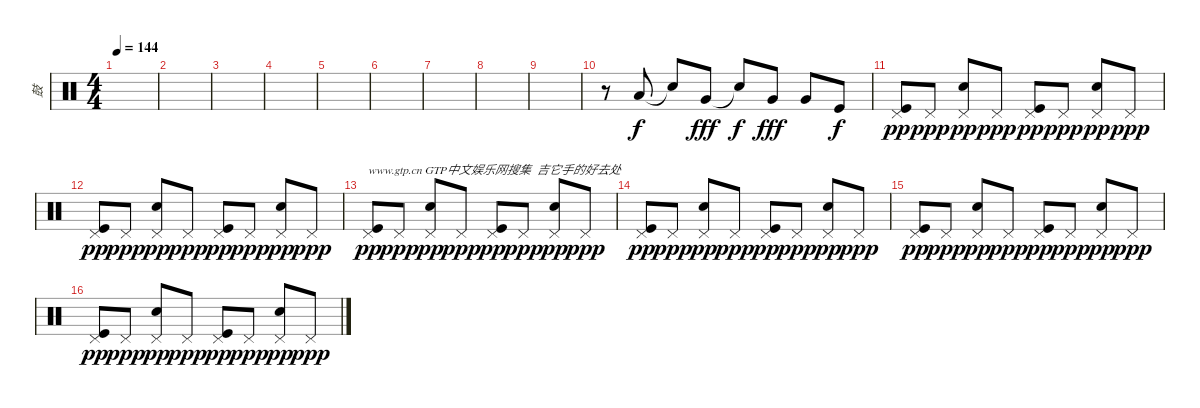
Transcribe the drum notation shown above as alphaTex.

\track ("鼓" "鼓") {instrument percussion}
\staff {score}
\articulation defaults
\ts (4 4)
\tempo 144
\clef neutral
\ks c
|
|
|
|
|
|
|
|
|
r.8 "Low Tom (hit)".8 "Snare (hit)"{t}.8{dy f} "Very Low Tom (hit)".8{dy fff} "Snare (hit)"{t}.8{dy f} "Very Low Tom (hit)".8{dy fff} "Very Low Tom (hit)".8 "Kick (hit)".8{dy f} |
("Kick (hit)" "Pedal Hi-Hat (hit)").8{dy pp} "Pedal Hi-Hat (hit)".8{dy ppp} ("Snare (hit) 2" "Pedal Hi-Hat (hit)").8{dy pp} "Pedal Hi-Hat (hit)".8{dy ppp} ("Kick (hit)" "Pedal Hi-Hat (hit)").8{dy pp} "Pedal Hi-Hat (hit)".8{dy ppp} ("Snare (hit) 2" "Pedal Hi-Hat (hit)").8{dy pp} "Pedal Hi-Hat (hit)".8{dy ppp} |
("Kick (hit)" "Pedal Hi-Hat (hit)").8{dy pp} "Pedal Hi-Hat (hit)".8{dy ppp} ("Snare (hit) 2" "Pedal Hi-Hat (hit)").8{dy pp} "Pedal Hi-Hat (hit)".8{dy ppp} ("Kick (hit)" "Pedal Hi-Hat (hit)").8{dy pp} "Pedal Hi-Hat (hit)".8{dy ppp} ("Snare (hit) 2" "Pedal Hi-Hat (hit)").8{dy pp} "Pedal Hi-Hat (hit)".8{dy ppp} |
("Kick (hit)" "Pedal Hi-Hat (hit)").8{txt "www.gtp.cn GTP中文娱乐网搜集  吉它手的好去处" dy pp} "Pedal Hi-Hat (hit)".8{dy ppp} ("Snare (hit) 2" "Pedal Hi-Hat (hit)").8{dy pp} "Pedal Hi-Hat (hit)".8{dy ppp} ("Kick (hit)" "Pedal Hi-Hat (hit)").8{dy pp} "Pedal Hi-Hat (hit)".8{dy ppp} ("Snare (hit) 2" "Pedal Hi-Hat (hit)").8{dy pp} "Pedal Hi-Hat (hit)".8{dy ppp} |
("Kick (hit)" "Pedal Hi-Hat (hit)").8{dy pp} "Pedal Hi-Hat (hit)".8{dy ppp} ("Snare (hit) 2" "Pedal Hi-Hat (hit)").8{dy pp} "Pedal Hi-Hat (hit)".8{dy ppp} ("Kick (hit)" "Pedal Hi-Hat (hit)").8{dy pp} "Pedal Hi-Hat (hit)".8{dy ppp} ("Snare (hit) 2" "Pedal Hi-Hat (hit)").8{dy pp} "Pedal Hi-Hat (hit)".8{dy ppp} |
("Kick (hit)" "Pedal Hi-Hat (hit)").8{dy pp} "Pedal Hi-Hat (hit)".8{dy ppp} ("Snare (hit) 2" "Pedal Hi-Hat (hit)").8{dy pp} "Pedal Hi-Hat (hit)".8{dy ppp} ("Kick (hit)" "Pedal Hi-Hat (hit)").8{dy pp} "Pedal Hi-Hat (hit)".8{dy ppp} ("Snare (hit) 2" "Pedal Hi-Hat (hit)").8{dy pp} "Pedal Hi-Hat (hit)".8{dy ppp} |
("Kick (hit)" "Pedal Hi-Hat (hit)").8{dy pp} "Pedal Hi-Hat (hit)".8{dy ppp} ("Snare (hit) 2" "Pedal Hi-Hat (hit)").8{dy pp} "Pedal Hi-Hat (hit)".8{dy ppp} ("Kick (hit)" "Pedal Hi-Hat (hit)").8{dy pp} "Pedal Hi-Hat (hit)".8{dy ppp} ("Snare (hit) 2" "Pedal Hi-Hat (hit)").8{dy pp} "Pedal Hi-Hat (hit)".8{dy ppp}
